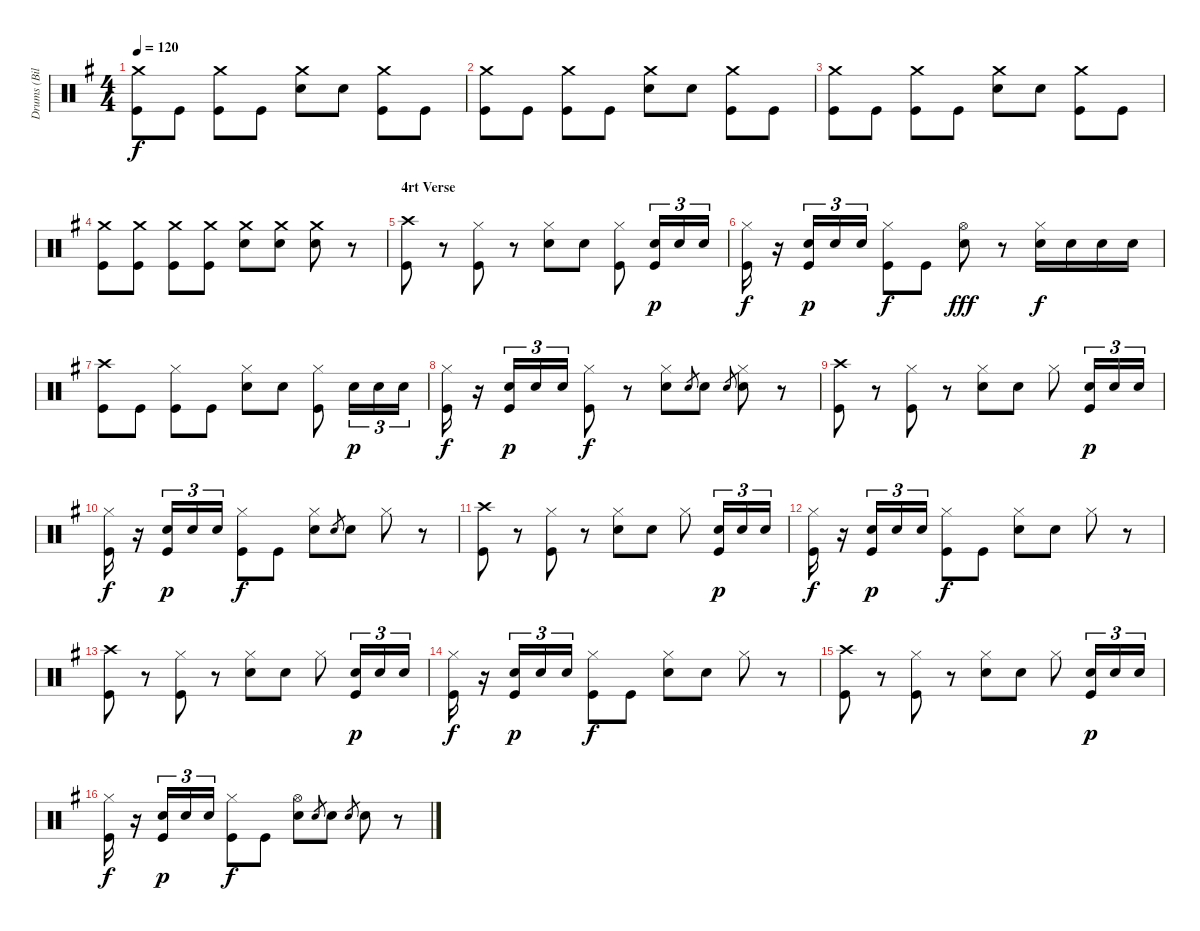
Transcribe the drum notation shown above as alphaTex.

\track ("Drums (Bill Ward)" "Drums (Bil") {instrument percussion}
\staff {score}
\articulation defaults
\ts (4 4)
\tempo 120
\clef neutral
\ks g
("Crash medium (hit)" "Kick (hit)").8{dy f} "Kick (hit)".8 ("Crash medium (hit)" "Kick (hit)").8 "Kick (hit)".8 ("Crash medium (hit)" "Electric Snare (hit)").8 "Electric Snare (hit)".8 ("Crash medium (hit)" "Kick (hit)").8 "Kick (hit)".8 |
("Crash medium (hit)" "Kick (hit)").8 "Kick (hit)".8 ("Crash medium (hit)" "Kick (hit)").8 "Kick (hit)".8 ("Crash medium (hit)" "Electric Snare (hit)").8 "Electric Snare (hit)".8 ("Crash medium (hit)" "Kick (hit)").8 "Kick (hit)".8 |
("Crash medium (hit)" "Kick (hit)").8 "Kick (hit)".8 ("Crash medium (hit)" "Kick (hit)").8 "Kick (hit)".8 ("Crash medium (hit)" "Electric Snare (hit)").8 "Electric Snare (hit)".8 ("Crash medium (hit)" "Kick (hit)").8 "Kick (hit)".8 |
("Crash medium (hit)" "Kick (hit)").8 ("Crash medium (hit)" "Kick (hit)").8 ("Crash medium (hit)" "Kick (hit)").8 ("Crash medium (hit)" "Kick (hit)").8 ("Crash medium (hit)" "Electric Snare (hit)").8 ("Crash medium (hit)" "Electric Snare (hit)").8 ("Crash medium (hit)" "Electric Snare (hit)").8 r.8 |
\section ("" "4rt Verse")
("Crash high (hit)" "Kick (hit)").8 r.8 ("Hi-Hat (closed)" "Kick (hit)").8 r.8 ("Hi-Hat (closed)" "Electric Snare (hit)").8 "Electric Snare (hit)".8 ("Hi-Hat (closed)" "Kick (hit)").8 ("Electric Snare (hit)" "Kick (hit)").16{tu (3 2) dy p} "Electric Snare (hit)".16{tu (3 2)} "Electric Snare (hit)".16{tu (3 2)} |
("Hi-Hat (closed)" "Kick (hit)").16{dy f} r.16 ("Electric Snare (hit)" "Kick (hit)").16{tu (3 2) dy p} "Electric Snare (hit)".16{tu (3 2)} "Electric Snare (hit)".16{tu (3 2)} ("Hi-Hat (closed)" "Kick (hit)").8{dy f} "Kick (hit)".8 ("Hi-Hat (open)" "Electric Snare (hit)").8{dy fff} r.8 ("Hi-Hat (closed)" "Electric Snare (hit)").16{dy f} "Electric Snare (hit)".16 "Electric Snare (hit)".16 "Electric Snare (hit)".16 |
("Crash high (hit)" "Kick (hit)").8 "Kick (hit)".8 ("Hi-Hat (closed)" "Kick (hit)").8 "Kick (hit)".8 ("Hi-Hat (closed)" "Electric Snare (hit)").8 "Electric Snare (hit)".8 ("Hi-Hat (closed)" "Kick (hit)").8 "Electric Snare (hit)".16{tu (3 2) dy p} "Electric Snare (hit)".16{tu (3 2)} "Electric Snare (hit)".16{tu (3 2)} |
("Hi-Hat (closed)" "Kick (hit)").16{dy f} r.16 ("Electric Snare (hit)" "Kick (hit)").16{tu (3 2) dy p} "Electric Snare (hit)".16{tu (3 2)} "Electric Snare (hit)".16{tu (3 2)} ("Hi-Hat (closed)" "Kick (hit)").8{dy f} r.8 ("Hi-Hat (closed)" "Electric Snare (hit)").8 "Electric Snare (hit)".8{gr} "Electric Snare (hit)".8 "Electric Snare (hit)".8{gr} ("Hi-Hat (closed)" "Electric Snare (hit)").8 r.8 |
("Crash high (hit)" "Kick (hit)").8 r.8 ("Hi-Hat (closed)" "Kick (hit)").8 r.8 ("Hi-Hat (closed)" "Electric Snare (hit)").8 "Electric Snare (hit)".8 "Hi-Hat (closed)".8 ("Electric Snare (hit)" "Kick (hit)").16{tu (3 2) dy p} "Electric Snare (hit)".16{tu (3 2)} "Electric Snare (hit)".16{tu (3 2)} |
("Hi-Hat (closed)" "Kick (hit)").16{dy f} r.16 ("Electric Snare (hit)" "Kick (hit)").16{tu (3 2) dy p} "Electric Snare (hit)".16{tu (3 2)} "Electric Snare (hit)".16{tu (3 2)} ("Hi-Hat (closed)" "Kick (hit)").8{dy f} "Kick (hit)".8 ("Hi-Hat (closed)" "Electric Snare (hit)").8 "Electric Snare (hit)".8{gr} "Electric Snare (hit)".8 "Hi-Hat (closed)".8 r.8 |
("Crash high (hit)" "Kick (hit)").8 r.8 ("Hi-Hat (closed)" "Kick (hit)").8 r.8 ("Hi-Hat (closed)" "Electric Snare (hit)").8 "Electric Snare (hit)".8 "Hi-Hat (closed)".8 ("Electric Snare (hit)" "Kick (hit)").16{tu (3 2) dy p} "Electric Snare (hit)".16{tu (3 2)} "Electric Snare (hit)".16{tu (3 2)} |
("Hi-Hat (closed)" "Kick (hit)").16{dy f} r.16 ("Electric Snare (hit)" "Kick (hit)").16{tu (3 2) dy p} "Electric Snare (hit)".16{tu (3 2)} "Electric Snare (hit)".16{tu (3 2)} ("Hi-Hat (closed)" "Kick (hit)").8{dy f} "Kick (hit)".8 ("Hi-Hat (closed)" "Electric Snare (hit)").8 "Electric Snare (hit)".8 "Hi-Hat (closed)".8 r.8 |
("Crash high (hit)" "Kick (hit)").8 r.8 ("Hi-Hat (closed)" "Kick (hit)").8 r.8 ("Hi-Hat (closed)" "Electric Snare (hit)").8 "Electric Snare (hit)".8 "Hi-Hat (closed)".8 ("Electric Snare (hit)" "Kick (hit)").16{tu (3 2) dy p} "Electric Snare (hit)".16{tu (3 2)} "Electric Snare (hit)".16{tu (3 2)} |
("Hi-Hat (closed)" "Kick (hit)").16{dy f} r.16 ("Electric Snare (hit)" "Kick (hit)").16{tu (3 2) dy p} "Electric Snare (hit)".16{tu (3 2)} "Electric Snare (hit)".16{tu (3 2)} ("Hi-Hat (closed)" "Kick (hit)").8{dy f} "Kick (hit)".8 ("Hi-Hat (closed)" "Electric Snare (hit)").8 "Electric Snare (hit)".8 "Hi-Hat (closed)".8 r.8 |
("Crash high (hit)" "Kick (hit)").8 r.8 ("Hi-Hat (closed)" "Kick (hit)").8 r.8 ("Hi-Hat (closed)" "Electric Snare (hit)").8 "Electric Snare (hit)".8 "Hi-Hat (closed)".8 ("Electric Snare (hit)" "Kick (hit)").16{tu (3 2) dy p} "Electric Snare (hit)".16{tu (3 2)} "Electric Snare (hit)".16{tu (3 2)} |
("Hi-Hat (closed)" "Kick (hit)").16{dy f} r.16 ("Electric Snare (hit)" "Kick (hit)").16{tu (3 2) dy p} "Electric Snare (hit)".16{tu (3 2)} "Electric Snare (hit)".16{tu (3 2)} ("Hi-Hat (closed)" "Kick (hit)").8{dy f} "Kick (hit)".8 ("Hi-Hat (open)" "Electric Snare (hit)").8 "Electric Snare (hit)".8{gr} "Electric Snare (hit)".8 "Electric Snare (hit)".8{gr} "Electric Snare (hit)".8 r.8
